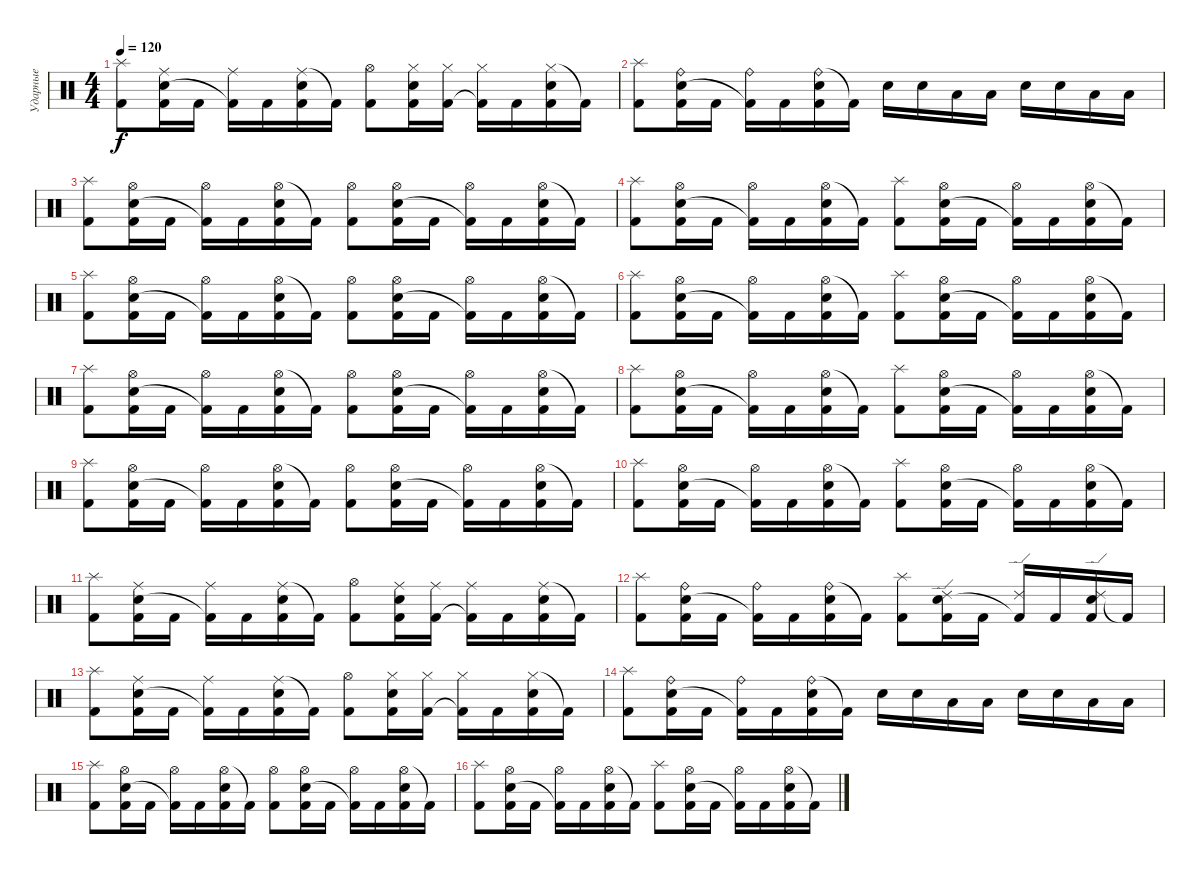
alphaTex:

\track ("Ударные" "Ударные") {instrument percussion}
\staff {score}
\articulation defaults
\ts (4 4)
\tempo 120
\clef neutral
\ks c
("Splash (hit)" "Kick (hit) 2").8{dy f} ("Ride (middle)" "Electric Snare (hit)" "Kick (hit) 2").16 "Kick (hit) 2".16 ("Ride (middle)" "Kick (hit) 2"{t}).16 "Kick (hit) 2".16 ("Ride (middle)" "Electric Snare (hit)" "Kick (hit) 2").16 "Kick (hit) 2"{t}.16 ("Hi-Hat (open)" "Kick (hit) 2").8 ("Hi-Hat (closed)" "Electric Snare (hit)" "Kick (hit) 2").16 ("Hi-Hat (closed)" "Kick (hit) 2").16 ("Hi-Hat (closed)" "Kick (hit) 2"{t}).16 "Kick (hit) 2".16 ("Hi-Hat (closed)" "Electric Snare (hit)" "Kick (hit) 2").16 "Kick (hit) 2"{t}.16 |
("Splash (hit)" "Kick (hit) 2").8 ("Ride (bell)" "Electric Snare (hit)" "Kick (hit) 2").16 "Kick (hit) 2".16 ("Ride (bell)" "Kick (hit) 2"{t}).16 "Kick (hit) 2".16 ("Ride (bell)" "Electric Snare (hit)" "Kick (hit) 2").16 "Kick (hit) 2"{t}.16 "Electric Snare (hit)".16 "Electric Snare (hit)".16 "Low Tom (hit)".16 "Low Tom (hit)".16 "Electric Snare (hit)".16 "Electric Snare (hit)".16 "Low Tom (hit)".16 "Low Tom (hit)".16 |
("Splash (hit)" "Kick (hit) 2").8 ("Hi-Hat (open)" "Electric Snare (hit)" "Kick (hit) 2").16 "Kick (hit) 2".16 ("Hi-Hat (open)" "Kick (hit) 2"{t}).16 "Kick (hit) 2".16 ("Hi-Hat (open)" "Electric Snare (hit)" "Kick (hit) 2").16 "Kick (hit) 2"{t}.16 ("Hi-Hat (open)" "Kick (hit) 2").8 ("Hi-Hat (open)" "Electric Snare (hit)" "Kick (hit) 2").16 "Kick (hit) 2".16 ("Hi-Hat (open)" "Kick (hit) 2"{t}).16 "Kick (hit) 2".16 ("Hi-Hat (open)" "Electric Snare (hit)" "Kick (hit) 2").16 "Kick (hit) 2"{t}.16 |
("Splash (hit)" "Kick (hit) 2").8 ("Hi-Hat (open)" "Electric Snare (hit)" "Kick (hit) 2").16 "Kick (hit) 2".16 ("Hi-Hat (open)" "Kick (hit) 2"{t}).16 "Kick (hit) 2".16 ("Hi-Hat (open)" "Electric Snare (hit)" "Kick (hit) 2").16 "Kick (hit) 2"{t}.16 ("Splash (hit)" "Kick (hit) 2").8 ("Hi-Hat (open)" "Electric Snare (hit)" "Kick (hit) 2").16 "Kick (hit) 2".16 ("Hi-Hat (open)" "Kick (hit) 2"{t}).16 "Kick (hit) 2".16 ("Hi-Hat (open)" "Electric Snare (hit)" "Kick (hit) 2").16 "Kick (hit) 2"{t}.16 |
("Splash (hit)" "Kick (hit) 2").8 ("Hi-Hat (open)" "Electric Snare (hit)" "Kick (hit) 2").16 "Kick (hit) 2".16 ("Hi-Hat (open)" "Kick (hit) 2"{t}).16 "Kick (hit) 2".16 ("Hi-Hat (open)" "Electric Snare (hit)" "Kick (hit) 2").16 "Kick (hit) 2"{t}.16 ("Hi-Hat (open)" "Kick (hit) 2").8 ("Hi-Hat (open)" "Electric Snare (hit)" "Kick (hit) 2").16 "Kick (hit) 2".16 ("Hi-Hat (open)" "Kick (hit) 2"{t}).16 "Kick (hit) 2".16 ("Hi-Hat (open)" "Electric Snare (hit)" "Kick (hit) 2").16 "Kick (hit) 2"{t}.16 |
("Splash (hit)" "Kick (hit) 2").8 ("Hi-Hat (open)" "Electric Snare (hit)" "Kick (hit) 2").16 "Kick (hit) 2".16 ("Hi-Hat (open)" "Kick (hit) 2"{t}).16 "Kick (hit) 2".16 ("Hi-Hat (open)" "Electric Snare (hit)" "Kick (hit) 2").16 "Kick (hit) 2"{t}.16 ("Splash (hit)" "Kick (hit) 2").8 ("Hi-Hat (open)" "Electric Snare (hit)" "Kick (hit) 2").16 "Kick (hit) 2".16 ("Hi-Hat (open)" "Kick (hit) 2"{t}).16 "Kick (hit) 2".16 ("Hi-Hat (open)" "Electric Snare (hit)" "Kick (hit) 2").16 "Kick (hit) 2"{t}.16 |
("Splash (hit)" "Kick (hit) 2").8 ("Hi-Hat (open)" "Electric Snare (hit)" "Kick (hit) 2").16 "Kick (hit) 2".16 ("Hi-Hat (open)" "Kick (hit) 2"{t}).16 "Kick (hit) 2".16 ("Hi-Hat (open)" "Electric Snare (hit)" "Kick (hit) 2").16 "Kick (hit) 2"{t}.16 ("Hi-Hat (open)" "Kick (hit) 2").8 ("Hi-Hat (open)" "Electric Snare (hit)" "Kick (hit) 2").16 "Kick (hit) 2".16 ("Hi-Hat (open)" "Kick (hit) 2"{t}).16 "Kick (hit) 2".16 ("Hi-Hat (open)" "Electric Snare (hit)" "Kick (hit) 2").16 "Kick (hit) 2"{t}.16 |
("Splash (hit)" "Kick (hit) 2").8 ("Hi-Hat (open)" "Electric Snare (hit)" "Kick (hit) 2").16 "Kick (hit) 2".16 ("Hi-Hat (open)" "Kick (hit) 2"{t}).16 "Kick (hit) 2".16 ("Hi-Hat (open)" "Electric Snare (hit)" "Kick (hit) 2").16 "Kick (hit) 2"{t}.16 ("Splash (hit)" "Kick (hit) 2").8 ("Hi-Hat (open)" "Electric Snare (hit)" "Kick (hit) 2").16 "Kick (hit) 2".16 ("Hi-Hat (open)" "Kick (hit) 2"{t}).16 "Kick (hit) 2".16 ("Hi-Hat (open)" "Electric Snare (hit)" "Kick (hit) 2").16 "Kick (hit) 2"{t}.16 |
("Splash (hit)" "Kick (hit) 2").8 ("Hi-Hat (open)" "Electric Snare (hit)" "Kick (hit) 2").16 "Kick (hit) 2".16 ("Hi-Hat (open)" "Kick (hit) 2"{t}).16 "Kick (hit) 2".16 ("Hi-Hat (open)" "Electric Snare (hit)" "Kick (hit) 2").16 "Kick (hit) 2"{t}.16 ("Hi-Hat (open)" "Kick (hit) 2").8 ("Hi-Hat (open)" "Electric Snare (hit)" "Kick (hit) 2").16 "Kick (hit) 2".16 ("Hi-Hat (open)" "Kick (hit) 2"{t}).16 "Kick (hit) 2".16 ("Hi-Hat (open)" "Electric Snare (hit)" "Kick (hit) 2").16 "Kick (hit) 2"{t}.16 |
("Splash (hit)" "Kick (hit) 2").8 ("Hi-Hat (open)" "Electric Snare (hit)" "Kick (hit) 2").16 "Kick (hit) 2".16 ("Hi-Hat (open)" "Kick (hit) 2"{t}).16 "Kick (hit) 2".16 ("Hi-Hat (open)" "Electric Snare (hit)" "Kick (hit) 2").16 "Kick (hit) 2"{t}.16 ("Splash (hit)" "Kick (hit) 2").8 ("Hi-Hat (open)" "Electric Snare (hit)" "Kick (hit) 2").16 "Kick (hit) 2".16 ("Hi-Hat (open)" "Kick (hit) 2"{t}).16 "Kick (hit) 2".16 ("Hi-Hat (open)" "Electric Snare (hit)" "Kick (hit) 2").16 "Kick (hit) 2"{t}.16 |
("Splash (hit)" "Kick (hit) 2").8 ("Ride (middle)" "Electric Snare (hit)" "Kick (hit) 2").16 "Kick (hit) 2".16 ("Ride (middle)" "Kick (hit) 2"{t}).16 "Kick (hit) 2".16 ("Ride (middle)" "Electric Snare (hit)" "Kick (hit) 2").16 "Kick (hit) 2"{t}.16 ("Hi-Hat (open)" "Kick (hit) 2").8 ("Ride (middle)" "Electric Snare (hit)" "Kick (hit) 2").16 ("Ride (middle)" "Kick (hit) 2").16 ("Ride (middle)" "Kick (hit) 2"{t}).16 "Kick (hit) 2".16 ("Ride (middle)" "Electric Snare (hit)" "Kick (hit) 2").16 "Kick (hit) 2"{t}.16 |
("Splash (hit)" "Kick (hit) 2").8 ("Ride (bell)" "Electric Snare (hit)" "Kick (hit) 2").16 "Kick (hit) 2".16 ("Ride (bell)" "Kick (hit) 2"{t}).16 "Kick (hit) 2".16 ("Ride (bell)" "Electric Snare (hit)" "Kick (hit) 2").16 "Kick (hit) 2"{t}.16 ("Splash (hit)" "Kick (hit) 2").8 ("Ride (edge) 2" "Electric Snare (hit)" "Kick (hit) 2").16 "Kick (hit) 2".16 ("Ride (edge) 2" "Kick (hit) 2"{t}).16 "Kick (hit) 2".16 ("Ride (edge) 2" "Electric Snare (hit)" "Kick (hit) 2").16 "Kick (hit) 2"{t}.16 |
("Splash (hit)" "Kick (hit) 2").8 ("Ride (middle)" "Electric Snare (hit)" "Kick (hit) 2").16 "Kick (hit) 2".16 ("Ride (middle)" "Kick (hit) 2"{t}).16 "Kick (hit) 2".16 ("Ride (middle)" "Electric Snare (hit)" "Kick (hit) 2").16 "Kick (hit) 2"{t}.16 ("Hi-Hat (open)" "Kick (hit) 2").8 ("Hi-Hat (closed)" "Electric Snare (hit)" "Kick (hit) 2").16 ("Hi-Hat (closed)" "Kick (hit) 2").16 ("Hi-Hat (closed)" "Kick (hit) 2"{t}).16 "Kick (hit) 2".16 ("Hi-Hat (closed)" "Electric Snare (hit)" "Kick (hit) 2").16 "Kick (hit) 2"{t}.16 |
("Splash (hit)" "Kick (hit) 2").8 ("Ride (bell)" "Electric Snare (hit)" "Kick (hit) 2").16 "Kick (hit) 2".16 ("Ride (bell)" "Kick (hit) 2"{t}).16 "Kick (hit) 2".16 ("Ride (bell)" "Electric Snare (hit)" "Kick (hit) 2").16 "Kick (hit) 2"{t}.16 "Electric Snare (hit)".16 "Electric Snare (hit)".16 "Low Tom (hit)".16 "Low Tom (hit)".16 "Electric Snare (hit)".16 "Electric Snare (hit)".16 "Low Tom (hit)".16 "Low Tom (hit)".16 |
("Splash (hit)" "Kick (hit) 2").8 ("Hi-Hat (open)" "Electric Snare (hit)" "Kick (hit) 2").16 "Kick (hit) 2".16 ("Hi-Hat (open)" "Kick (hit) 2"{t}).16 "Kick (hit) 2".16 ("Hi-Hat (open)" "Electric Snare (hit)" "Kick (hit) 2").16 "Kick (hit) 2"{t}.16 ("Hi-Hat (open)" "Kick (hit) 2").8 ("Hi-Hat (open)" "Electric Snare (hit)" "Kick (hit) 2").16 "Kick (hit) 2".16 ("Hi-Hat (open)" "Kick (hit) 2"{t}).16 "Kick (hit) 2".16 ("Hi-Hat (open)" "Electric Snare (hit)" "Kick (hit) 2").16 "Kick (hit) 2"{t}.16 |
("Splash (hit)" "Kick (hit) 2").8 ("Hi-Hat (open)" "Electric Snare (hit)" "Kick (hit) 2").16 "Kick (hit) 2".16 ("Hi-Hat (open)" "Kick (hit) 2"{t}).16 "Kick (hit) 2".16 ("Hi-Hat (open)" "Electric Snare (hit)" "Kick (hit) 2").16 "Kick (hit) 2"{t}.16 ("Splash (hit)" "Kick (hit) 2").8 ("Hi-Hat (open)" "Electric Snare (hit)" "Kick (hit) 2").16 "Kick (hit) 2".16 ("Hi-Hat (open)" "Kick (hit) 2"{t}).16 "Kick (hit) 2".16 ("Hi-Hat (open)" "Electric Snare (hit)" "Kick (hit) 2").16 "Kick (hit) 2"{t}.16
